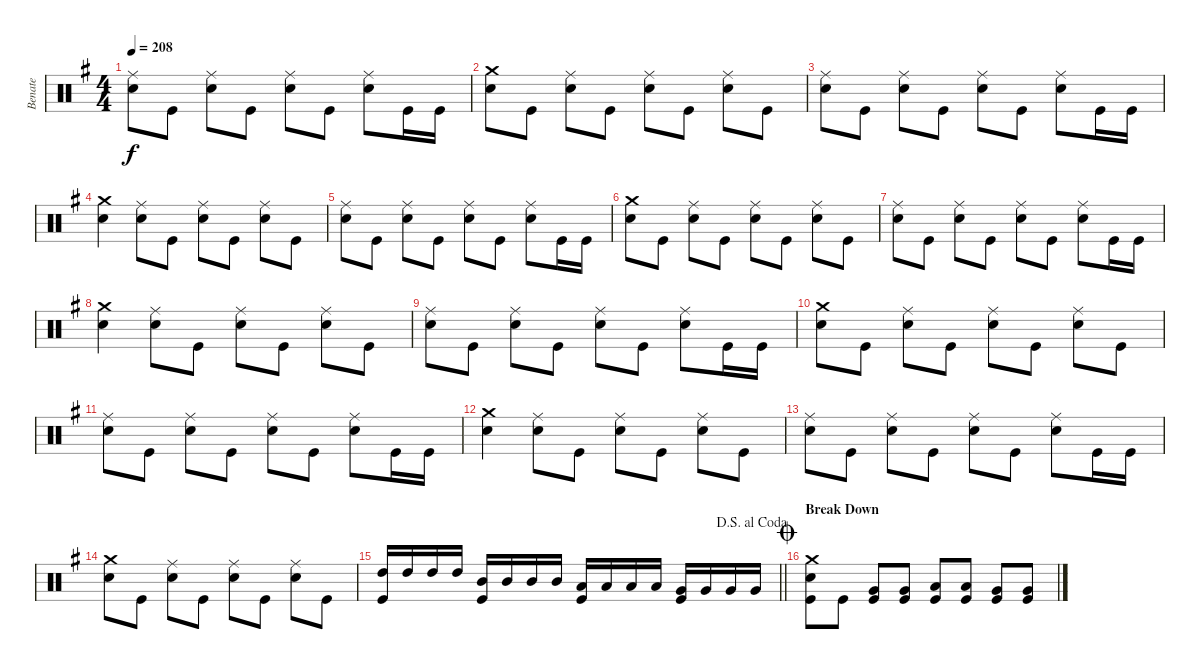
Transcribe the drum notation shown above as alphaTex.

\track ("Benate" "Benate") {instrument percussion}
\staff {score}
\articulation defaults
\ts (4 4)
\tempo 208
\clef neutral
\ks g
("Ride (middle)" "Snare (hit) 2").8{dy f} "Kick (hit)".8 ("Ride (middle)" "Snare (hit) 2").8 "Kick (hit)".8 ("Ride (middle)" "Snare (hit) 2").8 "Kick (hit)".8 ("Ride (middle)" "Snare (hit) 2").8 "Kick (hit)".16 "Kick (hit)".16 |
("Crash medium (hit)" "Snare (hit) 2").8 "Kick (hit)".8 ("Ride (middle)" "Snare (hit) 2").8 "Kick (hit)".8 ("Ride (middle)" "Snare (hit) 2").8 "Kick (hit)".8 ("Ride (middle)" "Snare (hit) 2").8 "Kick (hit)".8 |
("Ride (middle)" "Snare (hit) 2").8 "Kick (hit)".8 ("Ride (middle)" "Snare (hit) 2").8 "Kick (hit)".8 ("Ride (middle)" "Snare (hit) 2").8 "Kick (hit)".8 ("Ride (middle)" "Snare (hit) 2").8 "Kick (hit)".16 "Kick (hit)".16 |
("Crash medium (hit)" "Snare (hit) 2").4 ("Ride (middle)" "Snare (hit) 2").8 "Kick (hit)".8 ("Ride (middle)" "Snare (hit) 2").8 "Kick (hit)".8 ("Ride (middle)" "Snare (hit) 2").8 "Kick (hit)".8 |
("Ride (middle)" "Snare (hit) 2").8 "Kick (hit)".8 ("Ride (middle)" "Snare (hit) 2").8 "Kick (hit)".8 ("Ride (middle)" "Snare (hit) 2").8 "Kick (hit)".8 ("Ride (middle)" "Snare (hit) 2").8 "Kick (hit)".16 "Kick (hit)".16 |
("Crash medium (hit)" "Snare (hit) 2").8 "Kick (hit)".8 ("Ride (middle)" "Snare (hit) 2").8 "Kick (hit)".8 ("Ride (middle)" "Snare (hit) 2").8 "Kick (hit)".8 ("Ride (middle)" "Snare (hit) 2").8 "Kick (hit)".8 |
("Ride (middle)" "Snare (hit) 2").8 "Kick (hit)".8 ("Ride (middle)" "Snare (hit) 2").8 "Kick (hit)".8 ("Ride (middle)" "Snare (hit) 2").8 "Kick (hit)".8 ("Ride (middle)" "Snare (hit) 2").8 "Kick (hit)".16 "Kick (hit)".16 |
("Crash medium (hit)" "Snare (hit) 2").4 ("Ride (middle)" "Snare (hit) 2").8 "Kick (hit)".8 ("Ride (middle)" "Snare (hit) 2").8 "Kick (hit)".8 ("Ride (middle)" "Snare (hit) 2").8 "Kick (hit)".8 |
("Ride (middle)" "Snare (hit) 2").8 "Kick (hit)".8 ("Ride (middle)" "Snare (hit) 2").8 "Kick (hit)".8 ("Ride (middle)" "Snare (hit) 2").8 "Kick (hit)".8 ("Ride (middle)" "Snare (hit) 2").8 "Kick (hit)".16 "Kick (hit)".16 |
("Crash medium (hit)" "Snare (hit) 2").8 "Kick (hit)".8 ("Ride (middle)" "Snare (hit) 2").8 "Kick (hit)".8 ("Ride (middle)" "Snare (hit) 2").8 "Kick (hit)".8 ("Ride (middle)" "Snare (hit) 2").8 "Kick (hit)".8 |
("Ride (middle)" "Snare (hit) 2").8 "Kick (hit)".8 ("Ride (middle)" "Snare (hit) 2").8 "Kick (hit)".8 ("Ride (middle)" "Snare (hit) 2").8 "Kick (hit)".8 ("Ride (middle)" "Snare (hit) 2").8 "Kick (hit)".16 "Kick (hit)".16 |
("Crash medium (hit)" "Snare (hit) 2").4 ("Ride (middle)" "Snare (hit) 2").8 "Kick (hit)".8 ("Ride (middle)" "Snare (hit) 2").8 "Kick (hit)".8 ("Ride (middle)" "Snare (hit) 2").8 "Kick (hit)".8 |
("Ride (middle)" "Snare (hit) 2").8 "Kick (hit)".8 ("Ride (middle)" "Snare (hit) 2").8 "Kick (hit)".8 ("Ride (middle)" "Snare (hit) 2").8 "Kick (hit)".8 ("Ride (middle)" "Snare (hit) 2").8 "Kick (hit)".16 "Kick (hit)".16 |
("Crash medium (hit)" "Snare (hit) 2").8 "Kick (hit)".8 ("Ride (middle)" "Snare (hit) 2").8 "Kick (hit)".8 ("Ride (middle)" "Snare (hit) 2").8 "Kick (hit)".8 ("Ride (middle)" "Snare (hit) 2").8 "Kick (hit)".8 |
\jump dalsegnoalcoda
\barLineRight lightlight
("High Tom (hit)" "Kick (hit)").16 "High Tom (hit)".16 "High Tom (hit)".16 "High Tom (hit)".16 ("Mid Tom (hit)" "Kick (hit)").16 "Mid Tom (hit)".16 "Mid Tom (hit)".16 "Mid Tom (hit)".16 ("Low Tom (hit)" "Kick (hit)").16 "Low Tom (hit)".16 "Low Tom (hit)".16 "Low Tom (hit)".16 ("Very Low Tom (hit)" "Kick (hit)").16 "Very Low Tom (hit)".16 "Very Low Tom (hit)".16 "Very Low Tom (hit)".16 |
\section ("" "Break Down")
\jump coda
("Crash medium (hit)" "Snare (hit) 2" "Kick (hit)").8 "Kick (hit)".8 ("Very Low Tom (hit)" "Kick (hit)").8 ("Very Low Tom (hit)" "Kick (hit)").8 ("Low Tom (hit)" "Kick (hit)").8 ("Low Tom (hit)" "Kick (hit)").8 ("Very Low Tom (hit)" "Kick (hit)").8 ("Very Low Tom (hit)" "Kick (hit)").8
